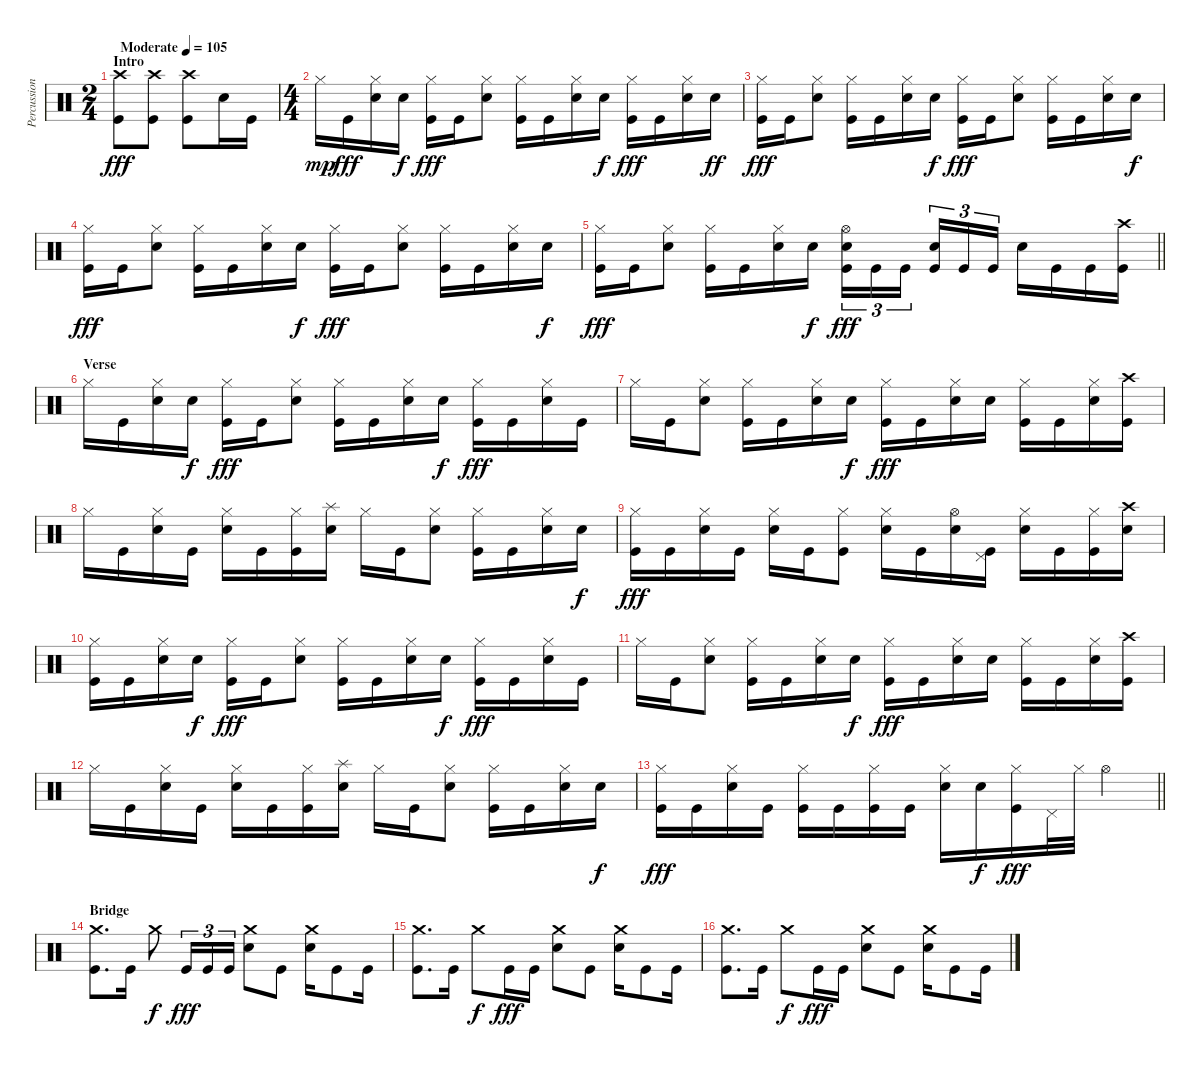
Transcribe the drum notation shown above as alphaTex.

\track ("Percussion" "Percussion") {instrument percussion}
\staff {score}
\articulation defaults
\ts (2 4)
\section ("" "Intro")
\tempo (105 "Moderate")
\clef neutral
\ks c
("Crash high (hit)" "Kick (hit)").8{dy fff} ("Crash high (hit)" "Kick (hit)").8 ("Crash high (hit)" "Kick (hit)").8 "Electric Snare (hit)".16 "Kick (hit)".16 |
\ts (4 4)
"Hi-Hat (closed)".16{dy mp} "Kick (hit)".16{dy fff} ("Hi-Hat (closed)" "Electric Snare (hit)").16 "Electric Snare (hit)".16{dy f} ("Hi-Hat (closed)" "Kick (hit)").16{dy fff} "Kick (hit)".16 ("Hi-Hat (closed)" "Electric Snare (hit)").8 ("Hi-Hat (closed)" "Kick (hit)").16 "Kick (hit)".16 ("Hi-Hat (closed)" "Electric Snare (hit)").16 "Electric Snare (hit)".16{dy f} ("Hi-Hat (closed)" "Kick (hit)").16{dy fff} "Kick (hit)".16 ("Hi-Hat (closed)" "Electric Snare (hit)").16 "Electric Snare (hit)".16{dy ff} |
("Hi-Hat (closed)" "Kick (hit)").16{dy fff} "Kick (hit)".16 ("Hi-Hat (closed)" "Electric Snare (hit)").8 ("Hi-Hat (closed)" "Kick (hit)").16 "Kick (hit)".16 ("Hi-Hat (closed)" "Electric Snare (hit)").16 "Electric Snare (hit)".16{dy f} ("Hi-Hat (closed)" "Kick (hit)").16{dy fff} "Kick (hit)".16 ("Hi-Hat (closed)" "Electric Snare (hit)").8 ("Hi-Hat (closed)" "Kick (hit)").16 "Kick (hit)".16 ("Hi-Hat (closed)" "Electric Snare (hit)").16 "Electric Snare (hit)".16{dy f} |
("Hi-Hat (closed)" "Kick (hit)").16{dy fff} "Kick (hit)".16 ("Hi-Hat (closed)" "Electric Snare (hit)").8 ("Hi-Hat (closed)" "Kick (hit)").16 "Kick (hit)".16 ("Hi-Hat (closed)" "Electric Snare (hit)").16 "Electric Snare (hit)".16{dy f} ("Hi-Hat (closed)" "Kick (hit)").16{dy fff} "Kick (hit)".16 ("Hi-Hat (closed)" "Electric Snare (hit)").8 ("Hi-Hat (closed)" "Kick (hit)").16 "Kick (hit)".16 ("Hi-Hat (closed)" "Electric Snare (hit)").16 "Electric Snare (hit)".16{dy f} |
\barLineRight lightlight
("Hi-Hat (closed)" "Kick (hit)").16{dy fff} "Kick (hit)".16 ("Hi-Hat (closed)" "Electric Snare (hit)").8 ("Hi-Hat (closed)" "Kick (hit)").16 "Kick (hit)".16 ("Hi-Hat (closed)" "Electric Snare (hit)").16 "Electric Snare (hit)".16{dy f} ("Hi-Hat (open)" "Electric Snare (hit)" "Kick (hit)").16{tu (3 2) dy fff} "Kick (hit)".16{tu (3 2)} "Kick (hit)".16{tu (3 2) beam splitsecondary} ("Electric Snare (hit)" "Kick (hit)").16{tu (3 2)} "Kick (hit)".16{tu (3 2)} "Kick (hit)".16{tu (3 2)} "Electric Snare (hit)".16 "Kick (hit)".16 "Kick (hit)".16 ("Crash high (hit)" "Kick (hit)").16 |
\section ("" "Verse")
"Hi-Hat (closed)".16 "Kick (hit)".16 ("Hi-Hat (closed)" "Electric Snare (hit)").16 "Electric Snare (hit)".16{dy f} ("Hi-Hat (closed)" "Kick (hit)").16{dy fff} "Kick (hit)".16 ("Hi-Hat (closed)" "Electric Snare (hit)").8 ("Hi-Hat (closed)" "Kick (hit)").16 "Kick (hit)".16 ("Hi-Hat (closed)" "Electric Snare (hit)").16 "Electric Snare (hit)".16{dy f} ("Hi-Hat (closed)" "Kick (hit)").16{dy fff} "Kick (hit)".16 ("Hi-Hat (closed)" "Electric Snare (hit)").16 "Kick (hit)".16 |
"Hi-Hat (closed)".16 "Kick (hit)".16 ("Hi-Hat (closed)" "Electric Snare (hit)").8 ("Hi-Hat (closed)" "Kick (hit)").16 "Kick (hit)".16 ("Hi-Hat (closed)" "Electric Snare (hit)").16 "Electric Snare (hit)".16{dy f} ("Hi-Hat (closed)" "Kick (hit)").16{dy fff} "Kick (hit)".16 ("Hi-Hat (closed)" "Electric Snare (hit)").16 "Electric Snare (hit)".16 ("Hi-Hat (closed)" "Kick (hit)").16 "Kick (hit)".16 ("Hi-Hat (closed)" "Electric Snare (hit)").16 ("Crash high (hit)" "Kick (hit)").16 |
"Hi-Hat (closed)".16 "Kick (hit)".16 ("Hi-Hat (closed)" "Electric Snare (hit)").16 "Kick (hit)".16 ("Hi-Hat (closed)" "Electric Snare (hit)").16 "Kick (hit)".16 ("Hi-Hat (closed)" "Kick (hit)").16 ("Splash (hit)" "Electric Snare (hit)").16 "Hi-Hat (closed)".16 "Kick (hit)".16 ("Hi-Hat (closed)" "Electric Snare (hit)").8 ("Hi-Hat (closed)" "Kick (hit)").16 "Kick (hit)".16 ("Hi-Hat (closed)" "Electric Snare (hit)").16 "Electric Snare (hit)".16{dy f} |
("Hi-Hat (closed)" "Kick (hit)").16{dy fff} "Kick (hit)".16 ("Hi-Hat (closed)" "Electric Snare (hit)").16 "Kick (hit)".16 ("Hi-Hat (closed)" "Electric Snare (hit)").16 "Kick (hit)".16 ("Hi-Hat (closed)" "Kick (hit)").8 ("Hi-Hat (closed)" "Electric Snare (hit)").16 "Kick (hit)".16 ("Hi-Hat (open)" "Electric Snare (hit)").16 ("Pedal Hi-Hat (hit)" "Kick (hit)").16 ("Hi-Hat (closed)" "Electric Snare (hit)").16 "Kick (hit)".16 ("Hi-Hat (closed)" "Kick (hit)").16 ("Crash high (hit)" "Electric Snare (hit)").16 |
("Hi-Hat (closed)" "Kick (hit)").16 "Kick (hit)".16 ("Hi-Hat (closed)" "Electric Snare (hit)").16 "Electric Snare (hit)".16{dy f} ("Hi-Hat (closed)" "Kick (hit)").16{dy fff} "Kick (hit)".16 ("Hi-Hat (closed)" "Electric Snare (hit)").8 ("Hi-Hat (closed)" "Kick (hit)").16 "Kick (hit)".16 ("Hi-Hat (closed)" "Electric Snare (hit)").16 "Electric Snare (hit)".16{dy f} ("Hi-Hat (closed)" "Kick (hit)").16{dy fff} "Kick (hit)".16 ("Hi-Hat (closed)" "Electric Snare (hit)").16 "Kick (hit)".16 |
"Hi-Hat (closed)".16 "Kick (hit)".16 ("Hi-Hat (closed)" "Electric Snare (hit)").8 ("Hi-Hat (closed)" "Kick (hit)").16 "Kick (hit)".16 ("Hi-Hat (closed)" "Electric Snare (hit)").16 "Electric Snare (hit)".16{dy f} ("Hi-Hat (closed)" "Kick (hit)").16{dy fff} "Kick (hit)".16 ("Hi-Hat (closed)" "Electric Snare (hit)").16 "Electric Snare (hit)".16 ("Hi-Hat (closed)" "Kick (hit)").16 "Kick (hit)".16 ("Hi-Hat (closed)" "Electric Snare (hit)").16 ("Crash high (hit)" "Kick (hit)").16 |
"Hi-Hat (closed)".16 "Kick (hit)".16 ("Hi-Hat (closed)" "Electric Snare (hit)").16 "Kick (hit)".16 ("Hi-Hat (closed)" "Electric Snare (hit)").16 "Kick (hit)".16 ("Hi-Hat (closed)" "Kick (hit)").16 ("Splash (hit)" "Electric Snare (hit)").16 "Hi-Hat (closed)".16 "Kick (hit)".16 ("Hi-Hat (closed)" "Electric Snare (hit)").8 ("Hi-Hat (closed)" "Kick (hit)").16 "Kick (hit)".16 ("Hi-Hat (closed)" "Electric Snare (hit)").16 "Electric Snare (hit)".16{dy f} |
\barLineRight lightlight
("Hi-Hat (closed)" "Kick (hit)").16{dy fff} "Kick (hit)".16 ("Hi-Hat (closed)" "Electric Snare (hit)").16 "Kick (hit)".16 ("Hi-Hat (closed)" "Kick (hit)").16 "Kick (hit)".16 ("Hi-Hat (closed)" "Kick (hit)").16 "Kick (hit)".16 ("Hi-Hat (closed)" "Electric Snare (hit)").16 "Electric Snare (hit)".16{dy f} ("Hi-Hat (closed)" "Kick (hit)").16{dy fff} "Pedal Hi-Hat (hit)".32 "Hi-Hat (closed)".32 "Hi-Hat (open)".4 |
\section ("" "Bridge")
("Crash medium (hit)" "Kick (hit)").8{d} "Kick (hit)".16 "Crash medium (hit)".8{dy f} "Kick (hit)".16{tu (3 2) dy fff} "Kick (hit)".16{tu (3 2)} "Kick (hit)".16{tu (3 2)} ("Crash medium (hit)" "Electric Snare (hit)").8 "Kick (hit)".8 ("Crash medium (hit)" "Electric Snare (hit)").16 "Kick (hit)".8 "Kick (hit)".16 |
("Crash medium (hit)" "Kick (hit)").8{d} "Kick (hit)".16 "Crash medium (hit)".8{dy f} "Kick (hit)".16{dy fff} "Kick (hit)".16 ("Crash medium (hit)" "Electric Snare (hit)").8 "Kick (hit)".8 ("Crash medium (hit)" "Electric Snare (hit)").16 "Kick (hit)".8 "Kick (hit)".16 |
("Crash medium (hit)" "Kick (hit)").8{d} "Kick (hit)".16 "Crash medium (hit)".8{dy f} "Kick (hit)".16{dy fff} "Kick (hit)".16 ("Crash medium (hit)" "Electric Snare (hit)").8 "Kick (hit)".8 ("Crash medium (hit)" "Electric Snare (hit)").16 "Kick (hit)".8 "Kick (hit)".16
